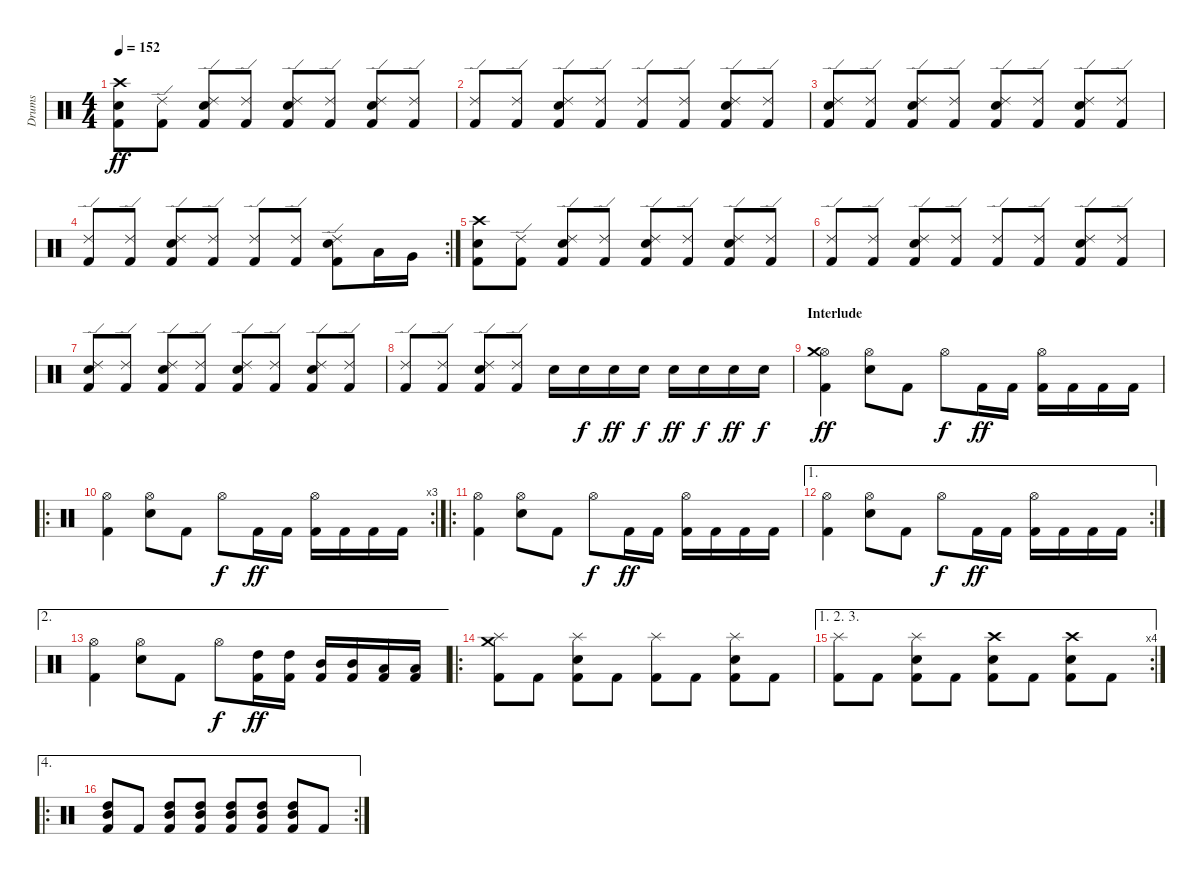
\track ("Drums" "Drums") {instrument percussion}
\staff {score}
\articulation defaults
\ts (4 4)
\tempo 152
\clef neutral
\ks c
("Crash high (hit)" "Electric Snare (hit)" "Kick (hit) 2").8{dy ff} ("Ride (edge) 2" "Kick (hit) 2").8 ("Ride (edge) 2" "Electric Snare (hit)" "Kick (hit) 2").8 ("Ride (edge) 2" "Kick (hit) 2").8 ("Ride (edge) 2" "Electric Snare (hit)" "Kick (hit) 2").8 ("Ride (edge) 2" "Kick (hit) 2").8 ("Ride (edge) 2" "Electric Snare (hit)" "Kick (hit) 2").8 ("Ride (edge) 2" "Kick (hit) 2").8 |
("Ride (edge) 2" "Kick (hit) 2").8 ("Ride (edge) 2" "Kick (hit) 2").8 ("Ride (edge) 2" "Electric Snare (hit)" "Kick (hit) 2").8 ("Ride (edge) 2" "Kick (hit) 2").8 ("Ride (edge) 2" "Kick (hit) 2").8 ("Ride (edge) 2" "Kick (hit) 2").8 ("Ride (edge) 2" "Electric Snare (hit)" "Kick (hit) 2").8 ("Ride (edge) 2" "Kick (hit) 2").8 |
("Ride (edge) 2" "Electric Snare (hit)" "Kick (hit) 2").8 ("Ride (edge) 2" "Kick (hit) 2").8 ("Ride (edge) 2" "Electric Snare (hit)" "Kick (hit) 2").8 ("Ride (edge) 2" "Kick (hit) 2").8 ("Ride (edge) 2" "Electric Snare (hit)" "Kick (hit) 2").8 ("Ride (edge) 2" "Kick (hit) 2").8 ("Ride (edge) 2" "Electric Snare (hit)" "Kick (hit) 2").8 ("Ride (edge) 2" "Kick (hit) 2").8 |
\rc 2
("Ride (edge) 2" "Kick (hit) 2").8 ("Ride (edge) 2" "Kick (hit) 2").8 ("Ride (edge) 2" "Electric Snare (hit)" "Kick (hit) 2").8 ("Ride (edge) 2" "Kick (hit) 2").8 ("Ride (edge) 2" "Kick (hit) 2").8 ("Ride (edge) 2" "Kick (hit) 2").8 ("Ride (edge) 2" "Electric Snare (hit)" "Kick (hit) 2").8 "Low Tom (hit)".16 "Very Low Tom (hit)".16 |
("Crash high (hit)" "Electric Snare (hit)" "Kick (hit) 2").8 ("Ride (edge) 2" "Kick (hit) 2").8 ("Ride (edge) 2" "Electric Snare (hit)" "Kick (hit) 2").8 ("Ride (edge) 2" "Kick (hit) 2").8 ("Ride (edge) 2" "Electric Snare (hit)" "Kick (hit) 2").8 ("Ride (edge) 2" "Kick (hit) 2").8 ("Ride (edge) 2" "Electric Snare (hit)" "Kick (hit) 2").8 ("Ride (edge) 2" "Kick (hit) 2").8 |
("Ride (edge) 2" "Kick (hit) 2").8 ("Ride (edge) 2" "Kick (hit) 2").8 ("Ride (edge) 2" "Electric Snare (hit)" "Kick (hit) 2").8 ("Ride (edge) 2" "Kick (hit) 2").8 ("Ride (edge) 2" "Kick (hit) 2").8 ("Ride (edge) 2" "Kick (hit) 2").8 ("Ride (edge) 2" "Electric Snare (hit)" "Kick (hit) 2").8 ("Ride (edge) 2" "Kick (hit) 2").8 |
("Ride (edge) 2" "Electric Snare (hit)" "Kick (hit) 2").8 ("Ride (edge) 2" "Kick (hit) 2").8 ("Ride (edge) 2" "Electric Snare (hit)" "Kick (hit) 2").8 ("Ride (edge) 2" "Kick (hit) 2").8 ("Ride (edge) 2" "Electric Snare (hit)" "Kick (hit) 2").8 ("Ride (edge) 2" "Kick (hit) 2").8 ("Ride (edge) 2" "Electric Snare (hit)" "Kick (hit) 2").8 ("Ride (edge) 2" "Kick (hit) 2").8 |
("Ride (edge) 2" "Kick (hit) 2").8 ("Ride (edge) 2" "Kick (hit) 2").8 ("Ride (edge) 2" "Electric Snare (hit)" "Kick (hit) 2").8 ("Ride (edge) 2" "Kick (hit) 2").8 "Electric Snare (hit)".16 "Electric Snare (hit)".16{dy f} "Electric Snare (hit)".16{dy ff} "Electric Snare (hit)".16{dy f} "Electric Snare (hit)".16{dy ff} "Electric Snare (hit)".16{dy f} "Electric Snare (hit)".16{dy ff} "Electric Snare (hit)".16{dy f} |
\section ("" "Interlude")
("Hi-Hat (open)" "Crash medium (hit)" "Kick (hit) 2").4{dy ff} ("Hi-Hat (open)" "Electric Snare (hit)").8 "Kick (hit) 2".8 "Hi-Hat (open)".8{dy f} "Kick (hit) 2".16{dy ff} "Kick (hit) 2".16 ("Hi-Hat (open)" "Kick (hit) 2").16 "Kick (hit) 2".16 "Kick (hit) 2".16 "Kick (hit) 2".16 |
\ro
\rc 3
("Hi-Hat (open)" "Kick (hit) 2").4 ("Hi-Hat (open)" "Electric Snare (hit)").8 "Kick (hit) 2".8 "Hi-Hat (open)".8{dy f} "Kick (hit) 2".16{dy ff} "Kick (hit) 2".16 ("Hi-Hat (open)" "Kick (hit) 2").16 "Kick (hit) 2".16 "Kick (hit) 2".16 "Kick (hit) 2".16 |
\ro
("Hi-Hat (open)" "Kick (hit) 2").4 ("Hi-Hat (open)" "Electric Snare (hit)").8 "Kick (hit) 2".8 "Hi-Hat (open)".8{dy f} "Kick (hit) 2".16{dy ff} "Kick (hit) 2".16 ("Hi-Hat (open)" "Kick (hit) 2").16 "Kick (hit) 2".16 "Kick (hit) 2".16 "Kick (hit) 2".16 |
\ae 1
\rc 2
("Hi-Hat (open)" "Kick (hit) 2").4 ("Hi-Hat (open)" "Electric Snare (hit)").8 "Kick (hit) 2".8 "Hi-Hat (open)".8{dy f} "Kick (hit) 2".16{dy ff} "Kick (hit) 2".16 ("Hi-Hat (open)" "Kick (hit) 2").16 "Kick (hit) 2".16 "Kick (hit) 2".16 "Kick (hit) 2".16 |
\ae 2
("Hi-Hat (open)" "Kick (hit) 2").4 ("Hi-Hat (open)" "Electric Snare (hit)").8 "Kick (hit) 2".8 "Hi-Hat (open)".8{dy f} ("High Tom (hit)" "Kick (hit) 2").16{dy ff} ("High Tom (hit)" "Kick (hit) 2").16 ("Mid Tom (hit)" "Kick (hit) 2").16 ("Mid Tom (hit)" "Kick (hit) 2").16 ("Low Tom (hit)" "Kick (hit) 2").16 ("Low Tom (hit)" "Kick (hit) 2").16 |
\ro
("Crash medium (hit)" "Splash (hit)" "Kick (hit) 2").8 "Kick (hit) 2".8 ("Splash (hit)" "Electric Snare (hit)" "Kick (hit) 2").8 "Kick (hit) 2".8 ("Splash (hit)" "Kick (hit) 2").8 "Kick (hit) 2".8 ("Splash (hit)" "Electric Snare (hit)" "Kick (hit) 2").8 "Kick (hit) 2".8 |
\ae (1 2 3)
\rc 4
("Splash (hit)" "Kick (hit) 2").8 "Kick (hit) 2".8 ("Splash (hit)" "Electric Snare (hit)" "Kick (hit) 2").8 "Kick (hit) 2".8 ("Crash high (hit)" "Electric Snare (hit)" "Kick (hit) 2").8 "Kick (hit) 2".8 ("Crash high (hit)" "Electric Snare (hit)" "Kick (hit) 2").8 "Kick (hit) 2".8 |
\ae 4
\ro
\rc 2
("High Tom (hit)" "Mid Tom (hit)" "Kick (hit) 2").8 "Kick (hit) 2".8 ("High Tom (hit)" "Mid Tom (hit)" "Kick (hit) 2").8 ("High Tom (hit)" "Mid Tom (hit)" "Kick (hit) 2").8 ("High Tom (hit)" "Mid Tom (hit)" "Kick (hit) 2").8 ("High Tom (hit)" "Mid Tom (hit)" "Kick (hit) 2").8 ("High Tom (hit)" "Mid Tom (hit)" "Kick (hit) 2").8 "Kick (hit) 2".8
